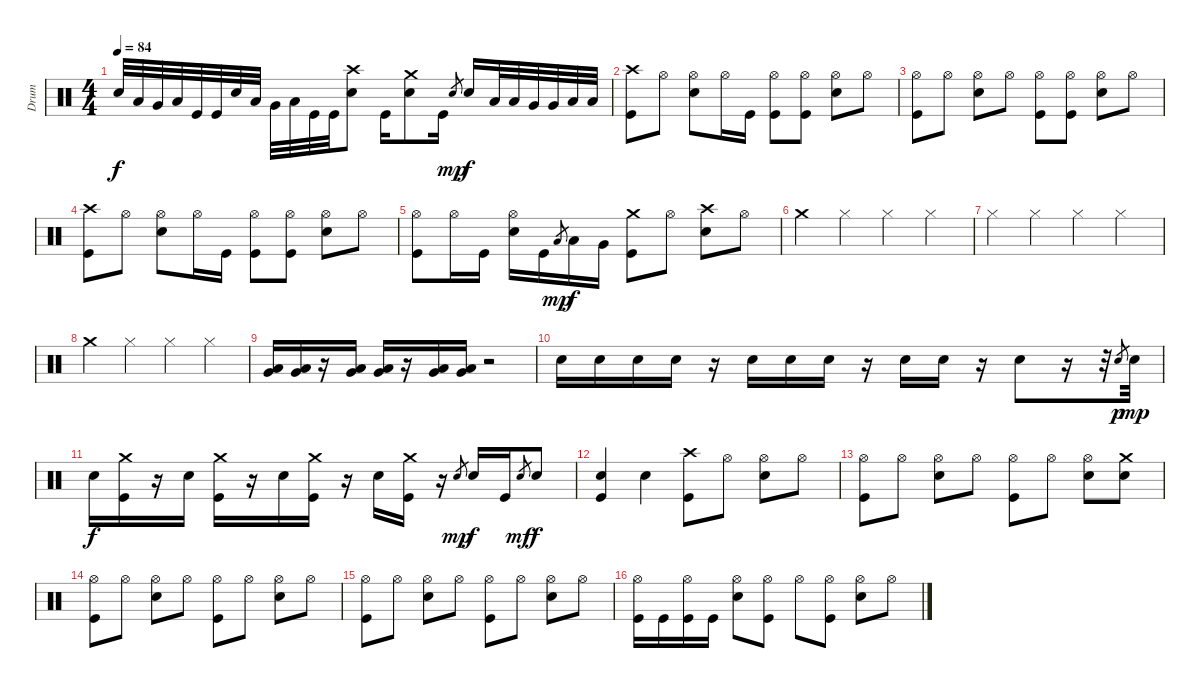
\track ("Drum" "Drum") {instrument percussion}
\staff {score}
\articulation defaults
\ts (4 4)
\tempo 84
\clef neutral
\ks c "Electric Snare (hit)".32{dy f} "Low Tom (hit)".32 "Very Low Tom (hit)".32 "Low Floor Tom (hit)".32 "Kick (hit)".32 "Kick (hit)".32 "Electric Snare (hit)".32 "Low Tom (hit)".32 "Very Low Tom (hit)".32 "Low Floor Tom (hit)".32 "Kick (hit)".32 "Kick (hit)".32
("Crash high (hit)" "Electric Snare (hit)").8 "Kick (hit)".16 ("Crash medium (hit)" "Electric Snare (hit)").8 "Kick (hit)".16 "Electric Snare (hit)".8{gr dy mp} "Electric Snare (hit)".16{dy f} "Low Tom (hit)".32 "Low Tom (hit)".32 "Very Low Tom (hit)".32 "Very Low Tom (hit)".32 "Low Floor Tom (hit)".32 "Low Floor Tom (hit)".32 |
("Crash high (hit)" "Kick (hit)").8 "Hi-Hat (open)".8 ("Hi-Hat (open)" "Electric Snare (hit)").8 "Hi-Hat (open)".16 "Kick (hit)".16 ("Hi-Hat (open)" "Kick (hit)").8 ("Hi-Hat (open)" "Kick (hit)").8 ("Hi-Hat (open)" "Electric Snare (hit)").8 "Hi-Hat (open)".8 |
("Hi-Hat (open)" "Kick (hit)").8 "Hi-Hat (open)".8 ("Hi-Hat (open)" "Electric Snare (hit)").8 "Hi-Hat (open)".8 ("Hi-Hat (open)" "Kick (hit)").8 ("Hi-Hat (open)" "Kick (hit)").8 ("Hi-Hat (open)" "Electric Snare (hit)").8 "Hi-Hat (open)".8 |
("Crash high (hit)" "Kick (hit)").8 "Hi-Hat (open)".8 ("Hi-Hat (open)" "Electric Snare (hit)").8 "Hi-Hat (open)".16 "Kick (hit)".16 ("Hi-Hat (open)" "Kick (hit)").8 ("Hi-Hat (open)" "Kick (hit)").8 ("Hi-Hat (open)" "Electric Snare (hit)").8 "Hi-Hat (open)".8 |
("Hi-Hat (open)" "Kick (hit)").8 "Hi-Hat (open)".16 "Kick (hit)".16 ("Hi-Hat (open)" "Electric Snare (hit)").16 "Kick (hit)".16 "Low Tom (hit)".8{gr dy mp} "Low Tom (hit)".16{dy f} "Very Low Tom (hit)".16 ("Crash medium (hit)" "Kick (hit)").8 "Hi-Hat (open)".8 ("Crash high (hit)" "Electric Snare (hit)").8 "Hi-Hat (open)".8 |
"Crash medium (hit)".4 "Hi-Hat (closed)".4 "Hi-Hat (closed)".4 "Hi-Hat (closed)".4 |
"Hi-Hat (closed)".4 "Hi-Hat (closed)".4 "Hi-Hat (closed)".4 "Hi-Hat (closed)".4 |
"Crash medium (hit)".4 "Hi-Hat (closed)".4 "Hi-Hat (closed)".4 "Hi-Hat (closed)".4 |
("Low Floor Tom (hit)" "Very Low Tom (hit)").16 ("Low Floor Tom (hit)" "Very Low Tom (hit)").16 r.16 ("Low Floor Tom (hit)" "Very Low Tom (hit)").16 ("Low Floor Tom (hit)" "Very Low Tom (hit)").16 r.16 ("Low Floor Tom (hit)" "Very Low Tom (hit)").16 ("Low Floor Tom (hit)" "Very Low Tom (hit)").16 r.2 |
"Electric Snare (hit)".16 "Electric Snare (hit)".16 "Electric Snare (hit)".16 "Electric Snare (hit)".16 r.16 "Electric Snare (hit)".16 "Electric Snare (hit)".16 "Electric Snare (hit)".16 r.16 "Electric Snare (hit)".16 "Electric Snare (hit)".16 r.16 "Electric Snare (hit)".8 r.16 r.32 "Electric Snare (hit)".8{gr dy p} "Electric Snare (hit)".32{dy mp} |
"Electric Snare (hit)".16{dy f} ("Crash medium (hit)" "Kick (hit)").16 r.16 "Electric Snare (hit)".16 ("Crash medium (hit)" "Kick (hit)").16 r.16 "Electric Snare (hit)".16 ("Crash medium (hit)" "Kick (hit)").16 r.16 "Electric Snare (hit)".16 ("Crash medium (hit)" "Kick (hit)").16 r.16 "Electric Snare (hit)".8{gr dy mp} "Electric Snare (hit)".16{dy f} "Kick (hit)".16 "Electric Snare (hit)".8{gr dy mf} "Electric Snare (hit)".8{dy f} |
("Electric Snare (hit)" "Kick (hit)").4 "Electric Snare (hit)".4 ("Crash high (hit)" "Kick (hit)").8 "Hi-Hat (open)".8 ("Hi-Hat (open)" "Electric Snare (hit)").8 "Hi-Hat (open)".8 |
("Hi-Hat (open)" "Kick (hit)").8 "Hi-Hat (open)".8 ("Hi-Hat (open)" "Electric Snare (hit)").8 "Hi-Hat (open)".8 ("Hi-Hat (open)" "Kick (hit)").8 "Hi-Hat (open)".8 ("Hi-Hat (open)" "Electric Snare (hit)").8 ("Crash medium (hit)" "Electric Snare (hit)").8 |
("Hi-Hat (open)" "Kick (hit)").8 "Hi-Hat (open)".8 ("Hi-Hat (open)" "Electric Snare (hit)").8 "Hi-Hat (open)".8 ("Hi-Hat (open)" "Kick (hit)").8 "Hi-Hat (open)".8 ("Hi-Hat (open)" "Electric Snare (hit)").8 "Hi-Hat (open)".8 |
("Hi-Hat (open)" "Kick (hit)").8 "Hi-Hat (open)".8 ("Hi-Hat (open)" "Electric Snare (hit)").8 "Hi-Hat (open)".8 ("Hi-Hat (open)" "Kick (hit)").8 "Hi-Hat (open)".8 ("Hi-Hat (open)" "Electric Snare (hit)").8 "Hi-Hat (open)".8 |
("Hi-Hat (open)" "Kick (hit)").16 "Kick (hit)".16 ("Hi-Hat (open)" "Kick (hit)").16 "Kick (hit)".16 ("Hi-Hat (open)" "Electric Snare (hit)").8 ("Hi-Hat (open)" "Kick (hit)").8 "Hi-Hat (open)".8 ("Hi-Hat (open)" "Kick (hit)").8 ("Hi-Hat (open)" "Electric Snare (hit)").8 "Hi-Hat (open)".8
